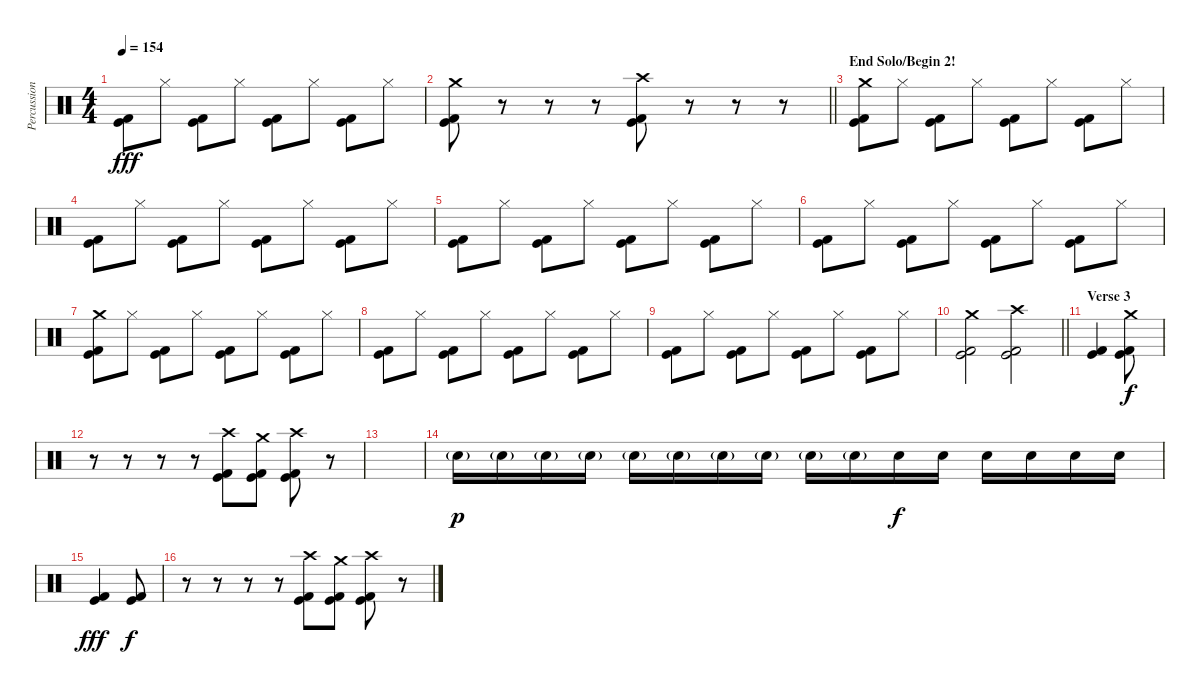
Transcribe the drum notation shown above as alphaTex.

\track ("Percussion" "Percussion") {instrument percussion}
\staff {score}
\articulation defaults
\ts (4 4)
\tempo 154
\clef neutral
\ks c
("Kick (hit)" "Kick (hit) 2").8{dy fff} "Hi-Hat (closed)".8 ("Kick (hit)" "Kick (hit) 2").8 "Hi-Hat (closed)".8 ("Kick (hit)" "Kick (hit) 2").8 "Hi-Hat (closed)".8 ("Kick (hit)" "Kick (hit) 2").8 "Hi-Hat (closed)".8 |
\barLineRight lightlight
("Crash medium (hit)" "Kick (hit)" "Kick (hit) 2").8 r.8 r.8 r.8 ("Crash high (hit)" "Kick (hit)" "Kick (hit) 2").8 r.8 r.8 r.8 |
\section ("" "End Solo/Begin 2!")
("Crash medium (hit)" "Kick (hit)" "Kick (hit) 2").8 "Hi-Hat (closed)".8 ("Kick (hit)" "Kick (hit) 2").8 "Hi-Hat (closed)".8 ("Kick (hit)" "Kick (hit) 2").8 "Hi-Hat (closed)".8 ("Kick (hit)" "Kick (hit) 2").8 "Hi-Hat (closed)".8 |
("Kick (hit)" "Kick (hit) 2").8 "Hi-Hat (closed)".8 ("Kick (hit)" "Kick (hit) 2").8 "Hi-Hat (closed)".8 ("Kick (hit)" "Kick (hit) 2").8 "Hi-Hat (closed)".8 ("Kick (hit)" "Kick (hit) 2").8 "Hi-Hat (closed)".8 |
("Kick (hit)" "Kick (hit) 2").8 "Hi-Hat (closed)".8 ("Kick (hit)" "Kick (hit) 2").8 "Hi-Hat (closed)".8 ("Kick (hit)" "Kick (hit) 2").8 "Hi-Hat (closed)".8 ("Kick (hit)" "Kick (hit) 2").8 "Hi-Hat (closed)".8 |
("Kick (hit)" "Kick (hit) 2").8 "Hi-Hat (closed)".8 ("Kick (hit)" "Kick (hit) 2").8 "Hi-Hat (closed)".8 ("Kick (hit)" "Kick (hit) 2").8 "Hi-Hat (closed)".8 ("Kick (hit)" "Kick (hit) 2").8 "Hi-Hat (closed)".8 |
("Crash medium (hit)" "Kick (hit)" "Kick (hit) 2").8 "Hi-Hat (closed)".8 ("Kick (hit)" "Kick (hit) 2").8 "Hi-Hat (closed)".8 ("Kick (hit)" "Kick (hit) 2").8 "Hi-Hat (closed)".8 ("Kick (hit)" "Kick (hit) 2").8 "Hi-Hat (closed)".8 |
("Kick (hit)" "Kick (hit) 2").8 "Hi-Hat (closed)".8 ("Kick (hit)" "Kick (hit) 2").8 "Hi-Hat (closed)".8 ("Kick (hit)" "Kick (hit) 2").8 "Hi-Hat (closed)".8 ("Kick (hit)" "Kick (hit) 2").8 "Hi-Hat (closed)".8 |
("Kick (hit)" "Kick (hit) 2").8 "Hi-Hat (closed)".8 ("Kick (hit)" "Kick (hit) 2").8 "Hi-Hat (closed)".8 ("Kick (hit)" "Kick (hit) 2").8 "Hi-Hat (closed)".8 ("Kick (hit)" "Kick (hit) 2").8 "Hi-Hat (closed)".8 |
\barLineRight lightlight
("Crash medium (hit)" "Kick (hit)" "Kick (hit) 2").2 ("Crash high (hit)" "Kick (hit)" "Kick (hit) 2").2 |
\section ("" "Verse 3")
("Kick (hit)" "Kick (hit) 2").4 ("Crash medium (hit)" "Kick (hit)" "Kick (hit) 2").8{dy f} |
r.8 r.8 r.8 r.8 ("Crash high (hit)" "Kick (hit)" "Kick (hit) 2").8 ("Crash medium (hit)" "Kick (hit)" "Kick (hit) 2").8 ("Crash high (hit)" "Kick (hit)" "Kick (hit) 2").8 r.8 |
|
"Snare (hit) 2"{g}.16{dy p} "Snare (hit) 2"{g}.16 "Snare (hit) 2"{g}.16 "Snare (hit) 2"{g}.16 "Snare (hit) 2"{g}.16 "Snare (hit) 2"{g}.16 "Snare (hit) 2"{g}.16 "Snare (hit) 2"{g}.16 "Snare (hit) 2"{g}.16 "Snare (hit) 2"{g}.16 "Snare (hit) 2".16{dy f} "Snare (hit) 2".16 "Snare (hit) 2".16 "Snare (hit) 2".16 "Snare (hit) 2".16 "Snare (hit) 2".16 |
("Kick (hit)" "Kick (hit) 2").4{dy fff} ("Kick (hit)" "Kick (hit) 2").8{dy f} |
r.8 r.8 r.8 r.8 ("Crash high (hit)" "Kick (hit)" "Kick (hit) 2").8 ("Crash medium (hit)" "Kick (hit)" "Kick (hit) 2").8 ("Crash high (hit)" "Kick (hit)" "Kick (hit) 2").8 r.8
